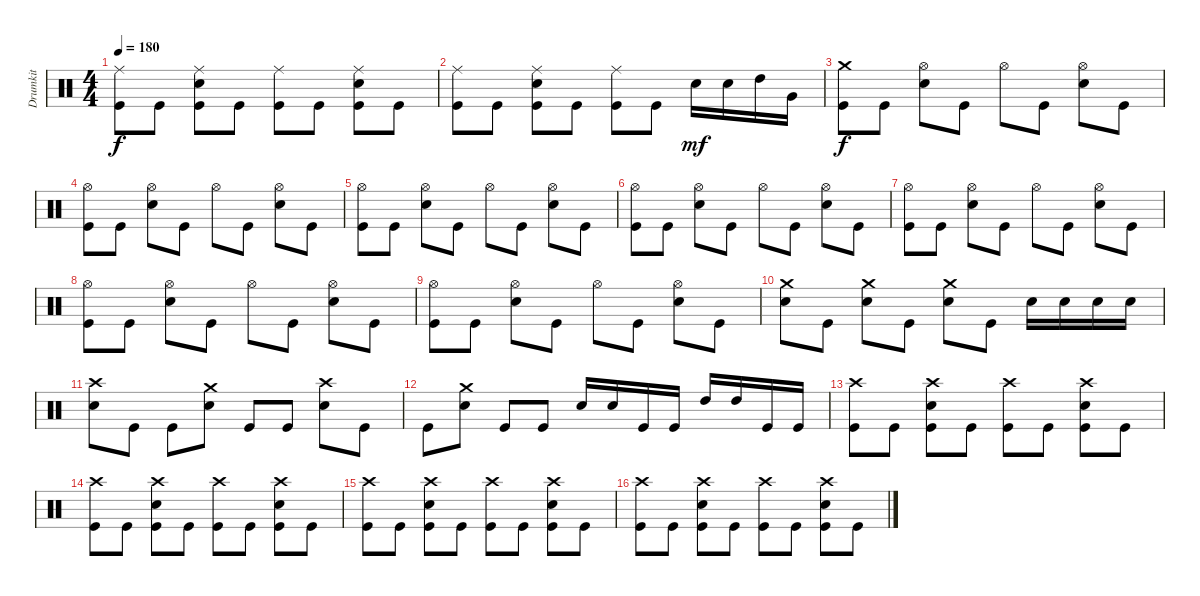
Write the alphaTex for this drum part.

\track ("Drumkit" "Drumkit") {instrument percussion}
\staff {score}
\articulation defaults
\ts (4 4)
\tempo 180
\clef neutral
\ks c
("Ride (middle)" "Kick (hit)").8{dy f} "Kick (hit)".8 ("Ride (middle)" "Snare (hit) 2" "Kick (hit)").8 "Kick (hit)".8 ("Ride (middle)" "Kick (hit)").8 "Kick (hit)".8 ("Ride (middle)" "Snare (hit) 2" "Kick (hit)").8 "Kick (hit)".8 |
("Ride (middle)" "Kick (hit)").8 "Kick (hit)".8 ("Ride (middle)" "Snare (hit) 2" "Kick (hit)").8 "Kick (hit)".8 ("Ride (middle)" "Kick (hit)").8 "Kick (hit)".8 "Snare (hit) 2".16{dy mf} "Snare (hit) 2".16 "High Tom (hit)".16 "Very Low Tom (hit)".16 |
("Crash medium (hit)" "Kick (hit)").8{dy f} "Kick (hit)".8 ("Hi-Hat (open)" "Snare (hit) 2").8 "Kick (hit)".8 "Hi-Hat (open)".8 "Kick (hit)".8 ("Hi-Hat (open)" "Snare (hit) 2").8 "Kick (hit)".8 |
("Hi-Hat (open)" "Kick (hit)").8 "Kick (hit)".8 ("Hi-Hat (open)" "Snare (hit) 2").8 "Kick (hit)".8 "Hi-Hat (open)".8 "Kick (hit)".8 ("Hi-Hat (open)" "Snare (hit) 2").8 "Kick (hit)".8 |
("Hi-Hat (open)" "Kick (hit)").8 "Kick (hit)".8 ("Hi-Hat (open)" "Snare (hit) 2").8 "Kick (hit)".8 "Hi-Hat (open)".8 "Kick (hit)".8 ("Hi-Hat (open)" "Snare (hit) 2").8 "Kick (hit)".8 |
("Hi-Hat (open)" "Kick (hit)").8 "Kick (hit)".8 ("Hi-Hat (open)" "Snare (hit) 2").8 "Kick (hit)".8 "Hi-Hat (open)".8 "Kick (hit)".8 ("Hi-Hat (open)" "Snare (hit) 2").8 "Kick (hit)".8 |
("Hi-Hat (open)" "Kick (hit)").8 "Kick (hit)".8 ("Hi-Hat (open)" "Snare (hit) 2").8 "Kick (hit)".8 "Hi-Hat (open)".8 "Kick (hit)".8 ("Hi-Hat (open)" "Snare (hit) 2").8 "Kick (hit)".8 |
("Hi-Hat (open)" "Kick (hit)").8 "Kick (hit)".8 ("Hi-Hat (open)" "Snare (hit) 2").8 "Kick (hit)".8 "Hi-Hat (open)".8 "Kick (hit)".8 ("Hi-Hat (open)" "Snare (hit) 2").8 "Kick (hit)".8 |
("Hi-Hat (open)" "Kick (hit)").8 "Kick (hit)".8 ("Hi-Hat (open)" "Snare (hit) 2").8 "Kick (hit)".8 "Hi-Hat (open)".8 "Kick (hit)".8 ("Hi-Hat (open)" "Snare (hit) 2").8 "Kick (hit)".8 |
("Crash medium (hit)" "Snare (hit) 2").8 "Kick (hit)".8 ("Crash medium (hit)" "Snare (hit) 2").8 "Kick (hit)".8 ("Crash medium (hit)" "Snare (hit) 2").8 "Kick (hit)".8 "Snare (hit) 2".16 "Snare (hit) 2".16 "Snare (hit) 2".16 "Snare (hit) 2".16 |
("Crash high (hit)" "Snare (hit) 2").8 "Kick (hit)".8 "Kick (hit)".8 ("Crash medium (hit)" "Snare (hit) 2").8 "Kick (hit)".8 "Kick (hit)".8 ("Crash high (hit)" "Snare (hit) 2").8 "Kick (hit)".8 |
"Kick (hit)".8 ("Crash medium (hit)" "Snare (hit) 2").8 "Kick (hit)".8 "Kick (hit)".8 "Snare (hit) 2".16 "Snare (hit) 2".16 "Kick (hit)".16 "Kick (hit)".16 "High Tom (hit)".16 "High Tom (hit)".16 "Kick (hit)".16 "Kick (hit)".16 |
("Crash high (hit)" "Kick (hit)").8 "Kick (hit)".8 ("Crash high (hit)" "Snare (hit) 2" "Kick (hit)").8 "Kick (hit)".8 ("Crash high (hit)" "Kick (hit)").8 "Kick (hit)".8 ("Crash high (hit)" "Snare (hit) 2" "Kick (hit)").8 "Kick (hit)".8 |
("Crash high (hit)" "Kick (hit)").8 "Kick (hit)".8 ("Crash high (hit)" "Snare (hit) 2" "Kick (hit)").8 "Kick (hit)".8 ("Crash high (hit)" "Kick (hit)").8 "Kick (hit)".8 ("Crash high (hit)" "Snare (hit) 2" "Kick (hit)").8 "Kick (hit)".8 |
("Crash high (hit)" "Kick (hit)").8 "Kick (hit)".8 ("Crash high (hit)" "Snare (hit) 2" "Kick (hit)").8 "Kick (hit)".8 ("Crash high (hit)" "Kick (hit)").8 "Kick (hit)".8 ("Crash high (hit)" "Snare (hit) 2" "Kick (hit)").8 "Kick (hit)".8 |
("Crash high (hit)" "Kick (hit)").8 "Kick (hit)".8 ("Crash high (hit)" "Snare (hit) 2" "Kick (hit)").8 "Kick (hit)".8 ("Crash high (hit)" "Kick (hit)").8 "Kick (hit)".8 ("Crash high (hit)" "Snare (hit) 2" "Kick (hit)").8 "Kick (hit)".8
